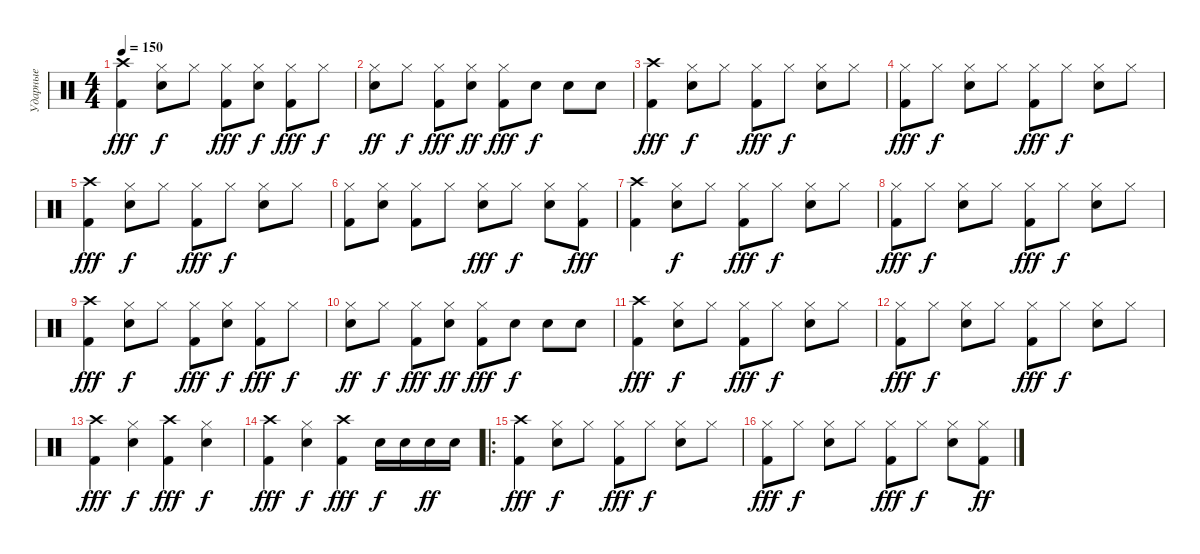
\track ("Ударные" "Ударные") {instrument percussion}
\staff
\articulation defaults
\ts (4 4)
\tempo 150
\clef neutral
\ks c
("Kick (hit) 2" "Crash high (hit)").4{dy fff} ("Snare (hit) 2" "Hi-Hat (closed)").8{dy f} "Hi-Hat (closed)".8 ("Kick (hit) 2" "Hi-Hat (closed)").8{dy fff} ("Snare (hit) 2" "Hi-Hat (closed)").8{dy f} ("Kick (hit) 2" "Hi-Hat (closed)").8{dy fff} "Hi-Hat (closed)".8{dy f} |
("Snare (hit) 2" "Hi-Hat (closed)").8{dy ff} "Hi-Hat (closed)".8{dy f} ("Kick (hit) 2" "Hi-Hat (closed)").8{dy fff} ("Snare (hit) 2" "Hi-Hat (closed)").8{dy ff} ("Kick (hit) 2" "Hi-Hat (closed)").8{dy fff} "Snare (hit) 2".8{dy f} "Snare (hit) 2".8 "Snare (hit) 2".8 |
("Kick (hit) 2" "Crash high (hit)").4{dy fff} ("Snare (hit) 2" "Hi-Hat (closed)").8{dy f} "Hi-Hat (closed)".8 ("Kick (hit) 2" "Hi-Hat (closed)").8{dy fff} "Hi-Hat (closed)".8{dy f} ("Snare (hit) 2" "Hi-Hat (closed)").8 "Hi-Hat (closed)".8 |
("Kick (hit) 2" "Hi-Hat (closed)").8{dy fff} "Hi-Hat (closed)".8{dy f} ("Snare (hit) 2" "Hi-Hat (closed)").8 "Hi-Hat (closed)".8 ("Kick (hit) 2" "Hi-Hat (closed)").8{dy fff} "Hi-Hat (closed)".8{dy f} ("Snare (hit) 2" "Hi-Hat (closed)").8 "Hi-Hat (closed)".8 |
("Kick (hit) 2" "Crash high (hit)").4{dy fff} ("Snare (hit) 2" "Hi-Hat (closed)").8{dy f} "Hi-Hat (closed)".8 ("Kick (hit) 2" "Hi-Hat (closed)").8{dy fff} "Hi-Hat (closed)".8{dy f} ("Snare (hit) 2" "Hi-Hat (closed)").8 "Hi-Hat (closed)".8 |
("Kick (hit) 2" "Hi-Hat (closed)").8 ("Snare (hit) 2" "Hi-Hat (closed)").8 ("Kick (hit) 2" "Hi-Hat (closed)").8 "Hi-Hat (closed)".8 ("Snare (hit) 2" "Hi-Hat (closed)").8{dy fff} "Hi-Hat (closed)".8{dy f} ("Snare (hit) 2" "Hi-Hat (closed)").8 ("Kick (hit) 2" "Hi-Hat (closed)").8{dy fff} |
("Kick (hit) 2" "Crash high (hit)").4 ("Snare (hit) 2" "Hi-Hat (closed)").8{dy f} "Hi-Hat (closed)".8 ("Kick (hit) 2" "Hi-Hat (closed)").8{dy fff} "Hi-Hat (closed)".8{dy f} ("Snare (hit) 2" "Hi-Hat (closed)").8 "Hi-Hat (closed)".8 |
("Kick (hit) 2" "Hi-Hat (closed)").8{dy fff} "Hi-Hat (closed)".8{dy f} ("Snare (hit) 2" "Hi-Hat (closed)").8 "Hi-Hat (closed)".8 ("Kick (hit) 2" "Hi-Hat (closed)").8{dy fff} "Hi-Hat (closed)".8{dy f} ("Snare (hit) 2" "Hi-Hat (closed)").8 "Hi-Hat (closed)".8 |
("Kick (hit) 2" "Crash high (hit)").4{dy fff} ("Snare (hit) 2" "Hi-Hat (closed)").8{dy f} "Hi-Hat (closed)".8 ("Kick (hit) 2" "Hi-Hat (closed)").8{dy fff} ("Snare (hit) 2" "Hi-Hat (closed)").8{dy f} ("Kick (hit) 2" "Hi-Hat (closed)").8{dy fff} "Hi-Hat (closed)".8{dy f} |
("Snare (hit) 2" "Hi-Hat (closed)").8{dy ff} "Hi-Hat (closed)".8{dy f} ("Kick (hit) 2" "Hi-Hat (closed)").8{dy fff} ("Snare (hit) 2" "Hi-Hat (closed)").8{dy ff} ("Kick (hit) 2" "Hi-Hat (closed)").8{dy fff} "Snare (hit) 2".8{dy f} "Snare (hit) 2".8 "Snare (hit) 2".8 |
("Kick (hit) 2" "Crash high (hit)").4{dy fff} ("Snare (hit) 2" "Hi-Hat (closed)").8{dy f} "Hi-Hat (closed)".8 ("Kick (hit) 2" "Hi-Hat (closed)").8{dy fff} "Hi-Hat (closed)".8{dy f} ("Snare (hit) 2" "Hi-Hat (closed)").8 "Hi-Hat (closed)".8 |
("Kick (hit) 2" "Hi-Hat (closed)").8{dy fff} "Hi-Hat (closed)".8{dy f} ("Snare (hit) 2" "Hi-Hat (closed)").8 "Hi-Hat (closed)".8 ("Kick (hit) 2" "Hi-Hat (closed)").8{dy fff} "Hi-Hat (closed)".8{dy f} ("Snare (hit) 2" "Hi-Hat (closed)").8 "Hi-Hat (closed)".8 |
("Kick (hit) 2" "Crash high (hit)").4{dy fff} ("Snare (hit) 2" "Hi-Hat (closed)").4{dy f} ("Kick (hit) 2" "Crash high (hit)").4{dy fff} ("Snare (hit) 2" "Hi-Hat (closed)").4{dy f} |
("Kick (hit) 2" "Crash high (hit)").4{dy fff} ("Snare (hit) 2" "Hi-Hat (closed)").4{dy f} ("Kick (hit) 2" "Crash high (hit)").4{dy fff} "Snare (hit) 2".16{dy f} "Snare (hit) 2".16 "Snare (hit) 2".16{dy ff} "Snare (hit) 2".16 |
\ro
("Kick (hit) 2" "Crash high (hit)").4{dy fff} ("Snare (hit) 2" "Hi-Hat (closed)").8{dy f} "Hi-Hat (closed)".8 ("Kick (hit) 2" "Hi-Hat (closed)").8{dy fff} "Hi-Hat (closed)".8{dy f} ("Snare (hit) 2" "Hi-Hat (closed)").8 "Hi-Hat (closed)".8 |
("Kick (hit) 2" "Hi-Hat (closed)").8{dy fff} "Hi-Hat (closed)".8{dy f} ("Snare (hit) 2" "Hi-Hat (closed)").8 "Hi-Hat (closed)".8 ("Kick (hit) 2" "Hi-Hat (closed)").8{dy fff} "Hi-Hat (closed)".8{dy f} ("Snare (hit) 2" "Hi-Hat (closed)").8 ("Kick (hit) 2" "Hi-Hat (closed)").8{dy ff}
